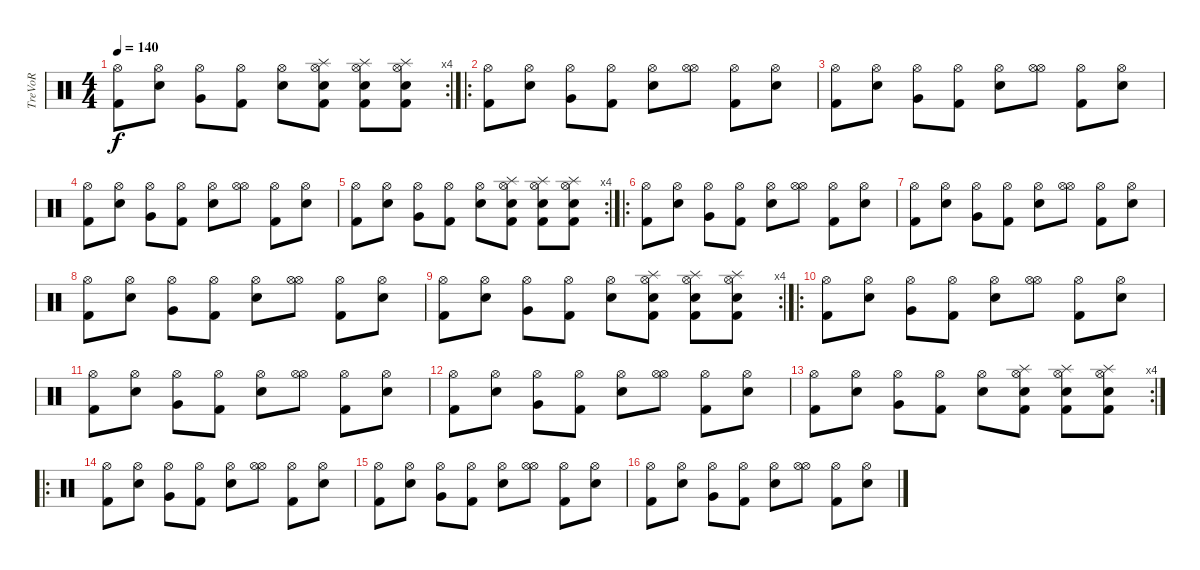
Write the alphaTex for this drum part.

\track ("TreVoR" "TreVoR") {instrument percussion}
\staff {score}
\articulation defaults
\rc 4
\ts (4 4)
\tempo 140
\clef neutral
\ks c
("Hi-Hat (open)" "Kick (hit) 2").8{dy f} ("Hi-Hat (open)" "Snare (hit) 2").8 ("Hi-Hat (open)" "Very Low Tom (hit)").8 ("Hi-Hat (open)" "Kick (hit) 2").8 ("Hi-Hat (open)" "Snare (hit) 2").8 ("Hi-Hat (open)" "Splash (hit)" "Kick (hit) 2" "Electric Snare (hit)").8 ("Hi-Hat (open)" "Splash (hit)" "Kick (hit) 2" "Electric Snare (hit)").8 ("Hi-Hat (open)" "Splash (hit)" "Kick (hit) 2" "Electric Snare (hit)").8 |
\ro
("Hi-Hat (open)" "Kick (hit) 2").8 ("Hi-Hat (open)" "Snare (hit) 2").8 ("Hi-Hat (open)" "Very Low Tom (hit)").8 ("Hi-Hat (open)" "Kick (hit) 2").8 ("Hi-Hat (open)" "Snare (hit) 2").8 ("Hi-Hat (open)" "Hi-Hat (open)").8 ("Hi-Hat (open)" "Kick (hit) 2").8 ("Hi-Hat (open)" "Snare (hit) 2").8 |
("Hi-Hat (open)" "Kick (hit) 2").8 ("Hi-Hat (open)" "Snare (hit) 2").8 ("Hi-Hat (open)" "Very Low Tom (hit)").8 ("Hi-Hat (open)" "Kick (hit) 2").8 ("Hi-Hat (open)" "Snare (hit) 2").8 ("Hi-Hat (open)" "Hi-Hat (open)").8 ("Hi-Hat (open)" "Kick (hit) 2").8 ("Hi-Hat (open)" "Snare (hit) 2").8 |
("Hi-Hat (open)" "Kick (hit) 2").8 ("Hi-Hat (open)" "Snare (hit) 2").8 ("Hi-Hat (open)" "Very Low Tom (hit)").8 ("Hi-Hat (open)" "Kick (hit) 2").8 ("Hi-Hat (open)" "Snare (hit) 2").8 ("Hi-Hat (open)" "Hi-Hat (open)").8 ("Hi-Hat (open)" "Kick (hit) 2").8 ("Hi-Hat (open)" "Snare (hit) 2").8 |
\rc 4
("Hi-Hat (open)" "Kick (hit) 2").8 ("Hi-Hat (open)" "Snare (hit) 2").8 ("Hi-Hat (open)" "Very Low Tom (hit)").8 ("Hi-Hat (open)" "Kick (hit) 2").8 ("Hi-Hat (open)" "Snare (hit) 2").8 ("Hi-Hat (open)" "Splash (hit)" "Kick (hit) 2" "Electric Snare (hit)").8 ("Hi-Hat (open)" "Splash (hit)" "Kick (hit) 2" "Electric Snare (hit)").8 ("Hi-Hat (open)" "Splash (hit)" "Kick (hit) 2" "Electric Snare (hit)").8 |
\ro
("Hi-Hat (open)" "Kick (hit) 2").8 ("Hi-Hat (open)" "Snare (hit) 2").8 ("Hi-Hat (open)" "Very Low Tom (hit)").8 ("Hi-Hat (open)" "Kick (hit) 2").8 ("Hi-Hat (open)" "Snare (hit) 2").8 ("Hi-Hat (open)" "Hi-Hat (open)").8 ("Hi-Hat (open)" "Kick (hit) 2").8 ("Hi-Hat (open)" "Snare (hit) 2").8 |
("Hi-Hat (open)" "Kick (hit) 2").8 ("Hi-Hat (open)" "Snare (hit) 2").8 ("Hi-Hat (open)" "Very Low Tom (hit)").8 ("Hi-Hat (open)" "Kick (hit) 2").8 ("Hi-Hat (open)" "Snare (hit) 2").8 ("Hi-Hat (open)" "Hi-Hat (open)").8 ("Hi-Hat (open)" "Kick (hit) 2").8 ("Hi-Hat (open)" "Snare (hit) 2").8 |
("Hi-Hat (open)" "Kick (hit) 2").8 ("Hi-Hat (open)" "Snare (hit) 2").8 ("Hi-Hat (open)" "Very Low Tom (hit)").8 ("Hi-Hat (open)" "Kick (hit) 2").8 ("Hi-Hat (open)" "Snare (hit) 2").8 ("Hi-Hat (open)" "Hi-Hat (open)").8 ("Hi-Hat (open)" "Kick (hit) 2").8 ("Hi-Hat (open)" "Snare (hit) 2").8 |
\rc 4
("Hi-Hat (open)" "Kick (hit) 2").8 ("Hi-Hat (open)" "Snare (hit) 2").8 ("Hi-Hat (open)" "Very Low Tom (hit)").8 ("Hi-Hat (open)" "Kick (hit) 2").8 ("Hi-Hat (open)" "Snare (hit) 2").8 ("Hi-Hat (open)" "Splash (hit)" "Kick (hit) 2" "Electric Snare (hit)").8 ("Hi-Hat (open)" "Splash (hit)" "Kick (hit) 2" "Electric Snare (hit)").8 ("Hi-Hat (open)" "Splash (hit)" "Kick (hit) 2" "Electric Snare (hit)").8 |
\ro
("Hi-Hat (open)" "Kick (hit) 2").8 ("Hi-Hat (open)" "Snare (hit) 2").8 ("Hi-Hat (open)" "Very Low Tom (hit)").8 ("Hi-Hat (open)" "Kick (hit) 2").8 ("Hi-Hat (open)" "Snare (hit) 2").8 ("Hi-Hat (open)" "Hi-Hat (open)").8 ("Hi-Hat (open)" "Kick (hit) 2").8 ("Hi-Hat (open)" "Snare (hit) 2").8 |
("Hi-Hat (open)" "Kick (hit) 2").8 ("Hi-Hat (open)" "Snare (hit) 2").8 ("Hi-Hat (open)" "Very Low Tom (hit)").8 ("Hi-Hat (open)" "Kick (hit) 2").8 ("Hi-Hat (open)" "Snare (hit) 2").8 ("Hi-Hat (open)" "Hi-Hat (open)").8 ("Hi-Hat (open)" "Kick (hit) 2").8 ("Hi-Hat (open)" "Snare (hit) 2").8 |
("Hi-Hat (open)" "Kick (hit) 2").8 ("Hi-Hat (open)" "Snare (hit) 2").8 ("Hi-Hat (open)" "Very Low Tom (hit)").8 ("Hi-Hat (open)" "Kick (hit) 2").8 ("Hi-Hat (open)" "Snare (hit) 2").8 ("Hi-Hat (open)" "Hi-Hat (open)").8 ("Hi-Hat (open)" "Kick (hit) 2").8 ("Hi-Hat (open)" "Snare (hit) 2").8 |
\rc 4
("Hi-Hat (open)" "Kick (hit) 2").8 ("Hi-Hat (open)" "Snare (hit) 2").8 ("Hi-Hat (open)" "Very Low Tom (hit)").8 ("Hi-Hat (open)" "Kick (hit) 2").8 ("Hi-Hat (open)" "Snare (hit) 2").8 ("Hi-Hat (open)" "Splash (hit)" "Kick (hit) 2" "Electric Snare (hit)").8 ("Hi-Hat (open)" "Splash (hit)" "Kick (hit) 2" "Electric Snare (hit)").8 ("Hi-Hat (open)" "Splash (hit)" "Kick (hit) 2" "Electric Snare (hit)").8 |
\ro
("Hi-Hat (open)" "Kick (hit) 2").8 ("Hi-Hat (open)" "Snare (hit) 2").8 ("Hi-Hat (open)" "Very Low Tom (hit)").8 ("Hi-Hat (open)" "Kick (hit) 2").8 ("Hi-Hat (open)" "Snare (hit) 2").8 ("Hi-Hat (open)" "Hi-Hat (open)").8 ("Hi-Hat (open)" "Kick (hit) 2").8 ("Hi-Hat (open)" "Snare (hit) 2").8 |
("Hi-Hat (open)" "Kick (hit) 2").8 ("Hi-Hat (open)" "Snare (hit) 2").8 ("Hi-Hat (open)" "Very Low Tom (hit)").8 ("Hi-Hat (open)" "Kick (hit) 2").8 ("Hi-Hat (open)" "Snare (hit) 2").8 ("Hi-Hat (open)" "Hi-Hat (open)").8 ("Hi-Hat (open)" "Kick (hit) 2").8 ("Hi-Hat (open)" "Snare (hit) 2").8 |
("Hi-Hat (open)" "Kick (hit) 2").8 ("Hi-Hat (open)" "Snare (hit) 2").8 ("Hi-Hat (open)" "Very Low Tom (hit)").8 ("Hi-Hat (open)" "Kick (hit) 2").8 ("Hi-Hat (open)" "Snare (hit) 2").8 ("Hi-Hat (open)" "Hi-Hat (open)").8 ("Hi-Hat (open)" "Kick (hit) 2").8 ("Hi-Hat (open)" "Snare (hit) 2").8
